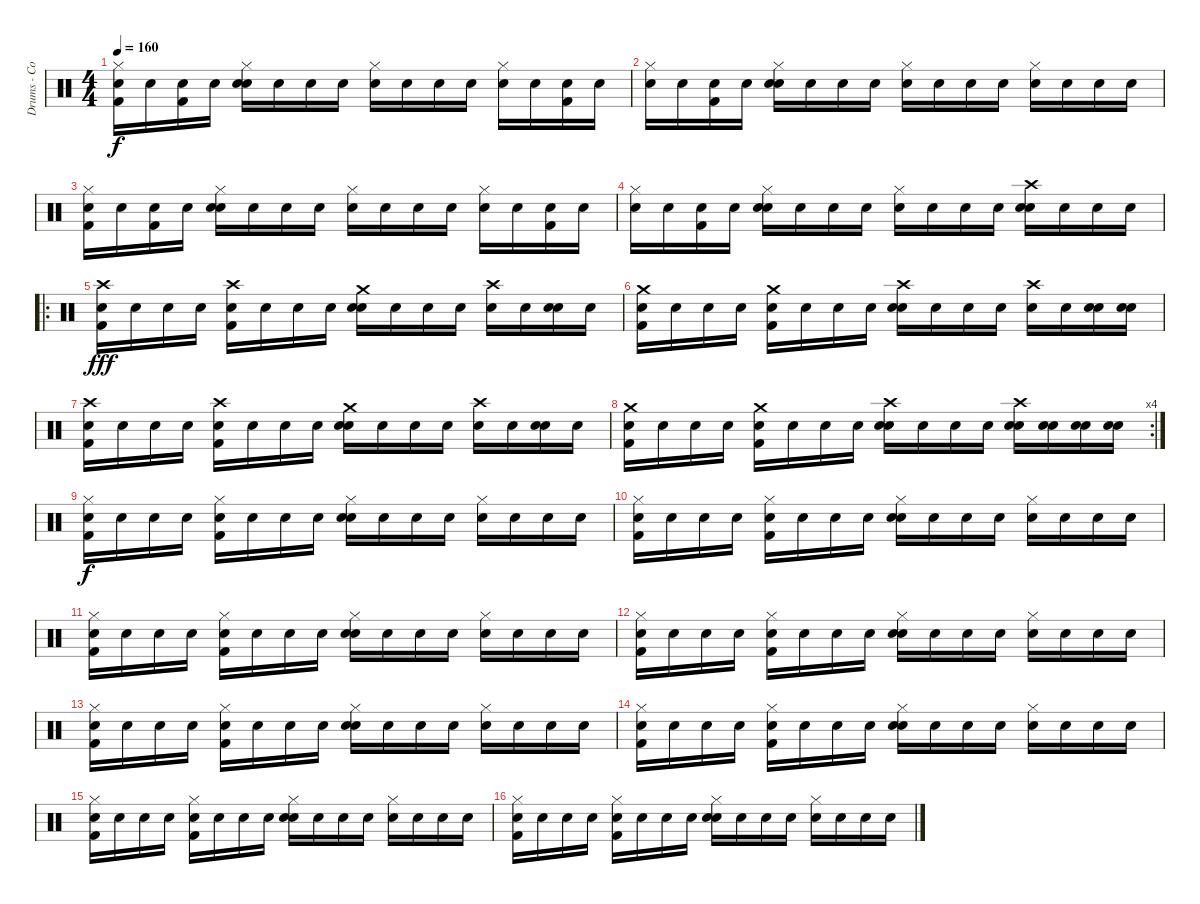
\track ("Drums - Colby" "Drums - Co") {instrument percussion}
\staff {score}
\articulation defaults
\ts (4 4)
\tempo 160
\clef neutral
\ks c
("Snare (hit)" "Kick (hit) 2" "Hi-Hat (closed)").16{dy f} "Snare (hit)".16 ("Snare (hit)" "Kick (hit) 2").16 "Snare (hit)".16 ("Snare (hit)" "Snare (hit) 2" "Hi-Hat (closed)").16 "Snare (hit)".16 "Snare (hit)".16 "Snare (hit)".16 ("Snare (hit)" "Hi-Hat (closed)").16 "Snare (hit)".16 "Snare (hit)".16 "Snare (hit)".16 ("Snare (hit)" "Hi-Hat (closed)").16 "Snare (hit)".16 ("Snare (hit)" "Kick (hit) 2").16 "Snare (hit)".16 |
("Snare (hit)" "Hi-Hat (closed)").16 "Snare (hit)".16 ("Snare (hit)" "Kick (hit) 2").16 "Snare (hit)".16 ("Snare (hit)" "Snare (hit) 2" "Hi-Hat (closed)").16 "Snare (hit)".16 "Snare (hit)".16 "Snare (hit)".16 ("Snare (hit)" "Hi-Hat (closed)").16 "Snare (hit)".16 "Snare (hit)".16 "Snare (hit)".16 ("Snare (hit)" "Hi-Hat (closed)").16 "Snare (hit)".16 "Snare (hit)".16 "Snare (hit)".16 |
("Snare (hit)" "Kick (hit) 2" "Hi-Hat (closed)").16 "Snare (hit)".16 ("Snare (hit)" "Kick (hit) 2").16 "Snare (hit)".16 ("Snare (hit)" "Snare (hit) 2" "Hi-Hat (closed)").16 "Snare (hit)".16 "Snare (hit)".16 "Snare (hit)".16 ("Snare (hit)" "Hi-Hat (closed)").16 "Snare (hit)".16 "Snare (hit)".16 "Snare (hit)".16 ("Snare (hit)" "Hi-Hat (closed)").16 "Snare (hit)".16 ("Snare (hit)" "Kick (hit) 2").16 "Snare (hit)".16 |
("Snare (hit)" "Hi-Hat (closed)").16 "Snare (hit)".16 ("Snare (hit)" "Kick (hit) 2").16 "Snare (hit)".16 ("Snare (hit)" "Snare (hit) 2" "Hi-Hat (closed)").16 "Snare (hit)".16 "Snare (hit)".16 "Snare (hit)".16 ("Snare (hit)" "Hi-Hat (closed)").16 "Snare (hit)".16 "Snare (hit)".16 "Snare (hit)".16 ("Snare (hit)" "Snare (hit) 2" "Crash high (hit)").16 "Snare (hit)".16 "Snare (hit)".16 "Snare (hit)".16 |
\ro
("Snare (hit)" "Kick (hit) 2" "Crash high (hit)").16{dy fff} "Snare (hit)".16 "Snare (hit)".16 "Snare (hit)".16 ("Snare (hit)" "Kick (hit) 2" "Crash high (hit)").16 "Snare (hit)".16 "Snare (hit)".16 "Snare (hit)".16 ("Snare (hit)" "Snare (hit) 2" "Crash medium (hit)").16 "Snare (hit)".16 "Snare (hit)".16 "Snare (hit)".16 ("Snare (hit)" "Crash high (hit)").16 "Snare (hit)".16 ("Snare (hit)" "Snare (hit) 2").16 "Snare (hit)".16 |
("Snare (hit)" "Kick (hit) 2" "Crash medium (hit)").16 "Snare (hit)".16 "Snare (hit)".16 "Snare (hit)".16 ("Snare (hit)" "Kick (hit) 2" "Crash medium (hit)").16 "Snare (hit)".16 "Snare (hit)".16 "Snare (hit)".16 ("Snare (hit)" "Snare (hit) 2" "Crash high (hit)").16 "Snare (hit)".16 "Snare (hit)".16 "Snare (hit)".16 ("Snare (hit)" "Crash high (hit)").16 "Snare (hit)".16 ("Snare (hit)" "Snare (hit) 2").16 ("Snare (hit)" "Snare (hit) 2").16 |
("Snare (hit)" "Kick (hit) 2" "Crash high (hit)").16 "Snare (hit)".16 "Snare (hit)".16 "Snare (hit)".16 ("Snare (hit)" "Kick (hit) 2" "Crash high (hit)").16 "Snare (hit)".16 "Snare (hit)".16 "Snare (hit)".16 ("Snare (hit)" "Snare (hit) 2" "Crash medium (hit)").16 "Snare (hit)".16 "Snare (hit)".16 "Snare (hit)".16 ("Snare (hit)" "Crash high (hit)").16 "Snare (hit)".16 ("Snare (hit)" "Snare (hit) 2").16 "Snare (hit)".16 |
\rc 4
("Snare (hit)" "Kick (hit) 2" "Crash medium (hit)").16 "Snare (hit)".16 "Snare (hit)".16 "Snare (hit)".16 ("Snare (hit)" "Kick (hit) 2" "Crash medium (hit)").16 "Snare (hit)".16 "Snare (hit)".16 "Snare (hit)".16 ("Snare (hit)" "Snare (hit) 2" "Crash high (hit)").16 "Snare (hit)".16 "Snare (hit)".16 "Snare (hit)".16 ("Snare (hit)" "Snare (hit) 2" "Crash high (hit)").16 ("Snare (hit)" "Snare (hit) 2").16 ("Snare (hit)" "Snare (hit) 2").16 ("Snare (hit)" "Snare (hit) 2").16 |
("Snare (hit)" "Kick (hit) 2" "Hi-Hat (closed)").16{dy f} "Snare (hit)".16 "Snare (hit)".16 "Snare (hit)".16 ("Snare (hit)" "Kick (hit) 2" "Hi-Hat (closed)").16 "Snare (hit)".16 "Snare (hit)".16 "Snare (hit)".16 ("Snare (hit)" "Snare (hit) 2" "Hi-Hat (closed)").16 "Snare (hit)".16 "Snare (hit)".16 "Snare (hit)".16 ("Snare (hit)" "Hi-Hat (closed)").16 "Snare (hit)".16 "Snare (hit)".16 "Snare (hit)".16 |
("Snare (hit)" "Kick (hit) 2" "Hi-Hat (closed)").16 "Snare (hit)".16 "Snare (hit)".16 "Snare (hit)".16 ("Snare (hit)" "Kick (hit) 2" "Hi-Hat (closed)").16 "Snare (hit)".16 "Snare (hit)".16 "Snare (hit)".16 ("Snare (hit)" "Snare (hit) 2" "Hi-Hat (closed)").16 "Snare (hit)".16 "Snare (hit)".16 "Snare (hit)".16 ("Snare (hit)" "Hi-Hat (closed)").16 "Snare (hit)".16 "Snare (hit)".16 "Snare (hit)".16 |
("Snare (hit)" "Kick (hit) 2" "Hi-Hat (closed)").16 "Snare (hit)".16 "Snare (hit)".16 "Snare (hit)".16 ("Snare (hit)" "Kick (hit) 2" "Hi-Hat (closed)").16 "Snare (hit)".16 "Snare (hit)".16 "Snare (hit)".16 ("Snare (hit)" "Snare (hit) 2" "Hi-Hat (closed)").16 "Snare (hit)".16 "Snare (hit)".16 "Snare (hit)".16 ("Snare (hit)" "Hi-Hat (closed)").16 "Snare (hit)".16 "Snare (hit)".16 "Snare (hit)".16 |
("Snare (hit)" "Kick (hit) 2" "Hi-Hat (closed)").16 "Snare (hit)".16 "Snare (hit)".16 "Snare (hit)".16 ("Snare (hit)" "Kick (hit) 2" "Hi-Hat (closed)").16 "Snare (hit)".16 "Snare (hit)".16 "Snare (hit)".16 ("Snare (hit)" "Snare (hit) 2" "Hi-Hat (closed)").16 "Snare (hit)".16 "Snare (hit)".16 "Snare (hit)".16 ("Snare (hit)" "Hi-Hat (closed)").16 "Snare (hit)".16 "Snare (hit)".16 "Snare (hit)".16 |
("Snare (hit)" "Kick (hit) 2" "Hi-Hat (closed)").16 "Snare (hit)".16 "Snare (hit)".16 "Snare (hit)".16 ("Snare (hit)" "Kick (hit) 2" "Hi-Hat (closed)").16 "Snare (hit)".16 "Snare (hit)".16 "Snare (hit)".16 ("Snare (hit)" "Snare (hit) 2" "Hi-Hat (closed)").16 "Snare (hit)".16 "Snare (hit)".16 "Snare (hit)".16 ("Snare (hit)" "Hi-Hat (closed)").16 "Snare (hit)".16 "Snare (hit)".16 "Snare (hit)".16 |
("Snare (hit)" "Kick (hit) 2" "Hi-Hat (closed)").16 "Snare (hit)".16 "Snare (hit)".16 "Snare (hit)".16 ("Snare (hit)" "Kick (hit) 2" "Hi-Hat (closed)").16 "Snare (hit)".16 "Snare (hit)".16 "Snare (hit)".16 ("Snare (hit)" "Snare (hit) 2" "Hi-Hat (closed)").16 "Snare (hit)".16 "Snare (hit)".16 "Snare (hit)".16 ("Snare (hit)" "Hi-Hat (closed)").16 "Snare (hit)".16 "Snare (hit)".16 "Snare (hit)".16 |
("Snare (hit)" "Kick (hit) 2" "Hi-Hat (closed)").16 "Snare (hit)".16 "Snare (hit)".16 "Snare (hit)".16 ("Snare (hit)" "Kick (hit) 2" "Hi-Hat (closed)").16 "Snare (hit)".16 "Snare (hit)".16 "Snare (hit)".16 ("Snare (hit)" "Snare (hit) 2" "Hi-Hat (closed)").16 "Snare (hit)".16 "Snare (hit)".16 "Snare (hit)".16 ("Snare (hit)" "Hi-Hat (closed)").16 "Snare (hit)".16 "Snare (hit)".16 "Snare (hit)".16 |
("Snare (hit)" "Kick (hit) 2" "Hi-Hat (closed)").16 "Snare (hit)".16 "Snare (hit)".16 "Snare (hit)".16 ("Snare (hit)" "Kick (hit) 2" "Hi-Hat (closed)").16 "Snare (hit)".16 "Snare (hit)".16 "Snare (hit)".16 ("Snare (hit)" "Snare (hit) 2" "Hi-Hat (closed)").16 "Snare (hit)".16 "Snare (hit)".16 "Snare (hit)".16 ("Snare (hit)" "Hi-Hat (closed)").16 "Snare (hit)".16 "Snare (hit)".16 "Snare (hit)".16
